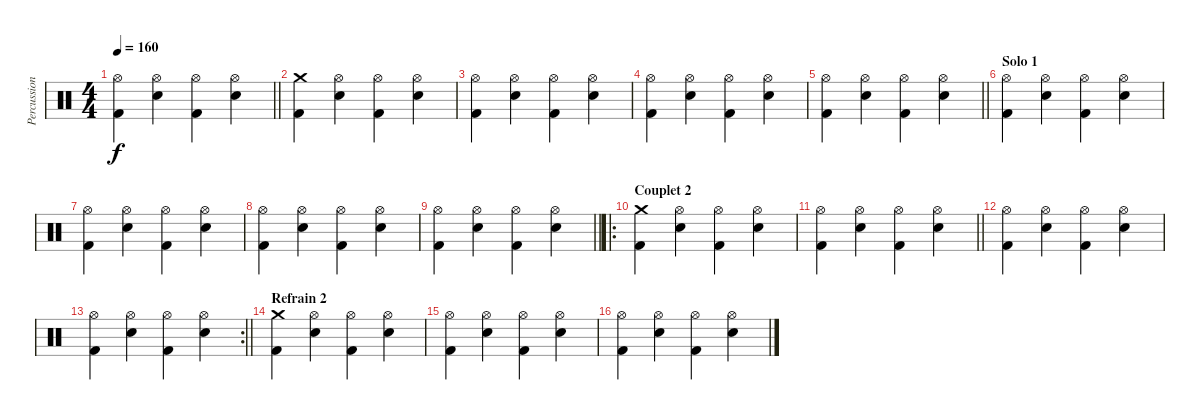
\track ("Percussions" "Percussion") {instrument percussion}
\staff
\articulation defaults
\ts (4 4)
\tempo 160
\clef neutral
\barLineRight lightlight
\ks c
("Hi-Hat (open)" "Kick (hit) 2").4{dy f} ("Hi-Hat (open)" "Electric Snare (hit)").4 ("Hi-Hat (open)" "Kick (hit) 2").4 ("Hi-Hat (open)" "Electric Snare (hit)").4 |
("Crash medium (hit)" "Kick (hit) 2").4 ("Hi-Hat (open)" "Electric Snare (hit)").4 ("Hi-Hat (open)" "Kick (hit) 2").4 ("Hi-Hat (open)" "Electric Snare (hit)").4 |
("Hi-Hat (open)" "Kick (hit) 2").4 ("Hi-Hat (open)" "Electric Snare (hit)").4 ("Hi-Hat (open)" "Kick (hit) 2").4 ("Hi-Hat (open)" "Electric Snare (hit)").4 |
("Hi-Hat (open)" "Kick (hit) 2").4 ("Hi-Hat (open)" "Electric Snare (hit)").4 ("Hi-Hat (open)" "Kick (hit) 2").4 ("Hi-Hat (open)" "Electric Snare (hit)").4 |
\barLineRight lightlight
("Hi-Hat (open)" "Kick (hit) 2").4 ("Hi-Hat (open)" "Electric Snare (hit)").4 ("Hi-Hat (open)" "Kick (hit) 2").4 ("Hi-Hat (open)" "Electric Snare (hit)").4 |
\section ("" "Solo 1")
("Hi-Hat (open)" "Kick (hit) 2").4 ("Hi-Hat (open)" "Electric Snare (hit)").4 ("Hi-Hat (open)" "Kick (hit) 2").4 ("Hi-Hat (open)" "Electric Snare (hit)").4 |
("Hi-Hat (open)" "Kick (hit) 2").4 ("Hi-Hat (open)" "Electric Snare (hit)").4 ("Hi-Hat (open)" "Kick (hit) 2").4 ("Hi-Hat (open)" "Electric Snare (hit)").4 |
("Hi-Hat (open)" "Kick (hit) 2").4 ("Hi-Hat (open)" "Electric Snare (hit)").4 ("Hi-Hat (open)" "Kick (hit) 2").4 ("Hi-Hat (open)" "Electric Snare (hit)").4 |
\barLineRight lightlight
("Hi-Hat (open)" "Kick (hit) 2").4 ("Hi-Hat (open)" "Electric Snare (hit)").4 ("Hi-Hat (open)" "Kick (hit) 2").4 ("Hi-Hat (open)" "Electric Snare (hit)").4 |
\ro
\section ("" "Couplet 2")
("Crash medium (hit)" "Kick (hit) 2").4 ("Hi-Hat (open)" "Electric Snare (hit)").4 ("Hi-Hat (open)" "Kick (hit) 2").4 ("Hi-Hat (open)" "Electric Snare (hit)").4 |
\barLineRight lightlight
("Hi-Hat (open)" "Kick (hit) 2").4 ("Hi-Hat (open)" "Electric Snare (hit)").4 ("Hi-Hat (open)" "Kick (hit) 2").4 ("Hi-Hat (open)" "Electric Snare (hit)").4 |
("Hi-Hat (open)" "Kick (hit) 2").4 ("Hi-Hat (open)" "Electric Snare (hit)").4 ("Hi-Hat (open)" "Kick (hit) 2").4 ("Hi-Hat (open)" "Electric Snare (hit)").4 |
\rc 2
\barLineRight lightlight
("Hi-Hat (open)" "Kick (hit) 2").4 ("Hi-Hat (open)" "Electric Snare (hit)").4 ("Hi-Hat (open)" "Kick (hit) 2").4 ("Hi-Hat (open)" "Electric Snare (hit)").4 |
\section ("" "Refrain 2")
("Crash medium (hit)" "Kick (hit) 2").4 ("Hi-Hat (open)" "Electric Snare (hit)").4 ("Hi-Hat (open)" "Kick (hit) 2").4 ("Hi-Hat (open)" "Electric Snare (hit)").4 |
("Hi-Hat (open)" "Kick (hit) 2").4 ("Hi-Hat (open)" "Electric Snare (hit)").4 ("Hi-Hat (open)" "Kick (hit) 2").4 ("Hi-Hat (open)" "Electric Snare (hit)").4 |
("Hi-Hat (open)" "Kick (hit) 2").4 ("Hi-Hat (open)" "Electric Snare (hit)").4 ("Hi-Hat (open)" "Kick (hit) 2").4 ("Hi-Hat (open)" "Electric Snare (hit)").4
